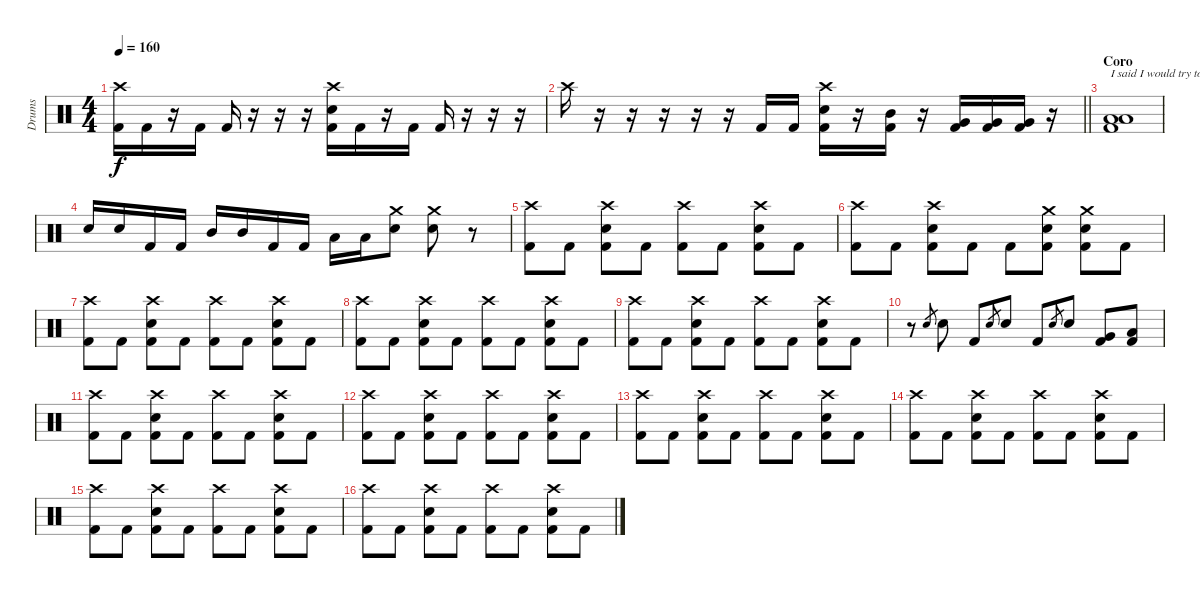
\track ("Drums" "Drums") {instrument percussion}
\staff {score}
\articulation defaults
\ts (4 4)
\tempo 160
\clef neutral
\ks c
("Crash high (hit)" "Kick (hit) 2").16{dy f} "Kick (hit) 2".16 r.16 "Kick (hit) 2".16 "Kick (hit) 2".16 r.16 r.16 r.16 ("Crash high (hit)" "Electric Snare (hit)" "Kick (hit) 2").16 "Kick (hit) 2".16 r.16 "Kick (hit) 2".16 "Kick (hit) 2".16 r.16 r.16 r.16 |
\barLineRight lightlight "Crash high (hit)".16
r.16 r.16 r.16 r.16 r.16 "Kick (hit) 2".16 "Kick (hit) 2".16 ("Crash high (hit)" "Electric Snare (hit)" "Kick (hit) 2").16 r.16 ("Mid Tom (hit)" "Kick (hit) 2").16 r.16 ("Very Low Tom (hit)" "Kick (hit) 2").16 ("Very Low Tom (hit)" "Kick (hit) 2").16 ("Very Low Tom (hit)" "Kick (hit) 2").16 r.16 |
\section ("" "Coro")
("Low Floor Tom (hit)" "Low Tom (hit)" "Kick (hit) 2").1{txt "I said I would try to get through this "} |
"Electric Snare (hit)".16 "Electric Snare (hit)".16 "Kick (hit) 2".16 "Kick (hit) 2".16 "Mid Tom (hit)".16 "Mid Tom (hit)".16 "Kick (hit) 2".16 "Kick (hit) 2".16 "Low Tom (hit)".16 "Low Tom (hit)".16 ("Crash medium (hit)" "Electric Snare (hit)").8 ("Crash medium (hit)" "Electric Snare (hit)").8 r.8 |
("Crash high (hit)" "Kick (hit) 2").8 "Kick (hit) 2".8 ("Crash high (hit)" "Electric Snare (hit)" "Kick (hit) 2").8 "Kick (hit) 2".8 ("Crash high (hit)" "Kick (hit) 2").8 "Kick (hit) 2".8 ("Crash high (hit)" "Electric Snare (hit)" "Kick (hit) 2").8 "Kick (hit) 2".8 |
("Crash high (hit)" "Kick (hit) 2").8 "Kick (hit) 2".8 ("Crash high (hit)" "Electric Snare (hit)" "Kick (hit) 2").8 "Kick (hit) 2".8 "Kick (hit) 2".8 ("Crash medium (hit)" "Electric Snare (hit)" "Kick (hit) 2").8 ("Crash medium (hit)" "Electric Snare (hit)" "Kick (hit) 2").8 "Kick (hit) 2".8 |
("Crash high (hit)" "Kick (hit) 2").8 "Kick (hit) 2".8 ("Crash high (hit)" "Electric Snare (hit)" "Kick (hit) 2").8 "Kick (hit) 2".8 ("Crash high (hit)" "Kick (hit) 2").8 "Kick (hit) 2".8 ("Crash high (hit)" "Electric Snare (hit)" "Kick (hit) 2").8 "Kick (hit) 2".8 |
("Crash high (hit)" "Kick (hit) 2").8 "Kick (hit) 2".8 ("Crash high (hit)" "Electric Snare (hit)" "Kick (hit) 2").8 "Kick (hit) 2".8 ("Crash high (hit)" "Kick (hit) 2").8 "Kick (hit) 2".8 ("Crash high (hit)" "Electric Snare (hit)" "Kick (hit) 2").8 "Kick (hit) 2".8 |
("Crash high (hit)" "Kick (hit) 2").8 "Kick (hit) 2".8 ("Crash high (hit)" "Electric Snare (hit)" "Kick (hit) 2").8 "Kick (hit) 2".8 ("Crash high (hit)" "Kick (hit) 2").8 "Kick (hit) 2".8 ("Crash high (hit)" "Electric Snare (hit)" "Kick (hit) 2").8 "Kick (hit) 2".8 |
r.8 "Electric Snare (hit)".8{gr} "Electric Snare (hit)".8 "Kick (hit) 2".8 "Electric Snare (hit)".8{gr} "Electric Snare (hit)".8 "Kick (hit) 2".8 "Electric Snare (hit)".8{gr} "Electric Snare (hit)".8 ("Very Low Tom (hit)" "Kick (hit) 2").8 ("Low Floor Tom (hit)" "Kick (hit) 2").8 |
("Crash high (hit)" "Kick (hit) 2").8 "Kick (hit) 2".8 ("Crash high (hit)" "Electric Snare (hit)" "Kick (hit) 2").8 "Kick (hit) 2".8 ("Crash high (hit)" "Kick (hit) 2").8 "Kick (hit) 2".8 ("Crash high (hit)" "Electric Snare (hit)" "Kick (hit) 2").8 "Kick (hit) 2".8 |
("Crash high (hit)" "Kick (hit) 2").8 "Kick (hit) 2".8 ("Crash high (hit)" "Electric Snare (hit)" "Kick (hit) 2").8 "Kick (hit) 2".8 ("Crash high (hit)" "Kick (hit) 2").8 "Kick (hit) 2".8 ("Crash high (hit)" "Electric Snare (hit)" "Kick (hit) 2").8 "Kick (hit) 2".8 |
("Crash high (hit)" "Kick (hit) 2").8 "Kick (hit) 2".8 ("Crash high (hit)" "Electric Snare (hit)" "Kick (hit) 2").8 "Kick (hit) 2".8 ("Crash high (hit)" "Kick (hit) 2").8 "Kick (hit) 2".8 ("Crash high (hit)" "Electric Snare (hit)" "Kick (hit) 2").8 "Kick (hit) 2".8 |
("Crash high (hit)" "Kick (hit) 2").8 "Kick (hit) 2".8 ("Crash high (hit)" "Electric Snare (hit)" "Kick (hit) 2").8 "Kick (hit) 2".8 ("Crash high (hit)" "Kick (hit) 2").8 "Kick (hit) 2".8 ("Crash high (hit)" "Electric Snare (hit)" "Kick (hit) 2").8 "Kick (hit) 2".8 |
("Crash high (hit)" "Kick (hit) 2").8 "Kick (hit) 2".8 ("Crash high (hit)" "Electric Snare (hit)" "Kick (hit) 2").8 "Kick (hit) 2".8 ("Crash high (hit)" "Kick (hit) 2").8 "Kick (hit) 2".8 ("Crash high (hit)" "Electric Snare (hit)" "Kick (hit) 2").8 "Kick (hit) 2".8 |
("Crash high (hit)" "Kick (hit) 2").8 "Kick (hit) 2".8 ("Crash high (hit)" "Electric Snare (hit)" "Kick (hit) 2").8 "Kick (hit) 2".8 ("Crash high (hit)" "Kick (hit) 2").8 "Kick (hit) 2".8 ("Crash high (hit)" "Electric Snare (hit)" "Kick (hit) 2").8 "Kick (hit) 2".8
